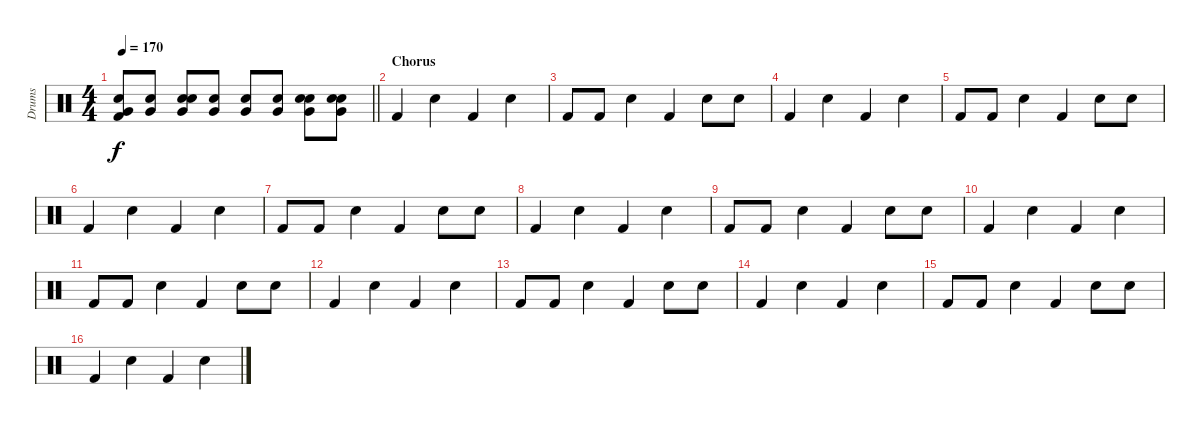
\track ("Drums" "Drums") {instrument percussion}
\staff {score}
\articulation defaults
\ts (4 4)
\tempo 170
\clef neutral
\barLineRight lightlight
\ks c
("Snare (hit) 2" "Very Low Tom (hit)" "Kick (hit) 2").8{dy f} ("Snare (hit) 2" "Very Low Tom (hit)").8 ("Hand Clap (hit)" "Snare (hit) 2" "Very Low Tom (hit)").8 ("Snare (hit) 2" "Very Low Tom (hit)").8 ("Snare (hit) 2" "Very Low Tom (hit)").8 ("Snare (hit) 2" "Very Low Tom (hit)").8 ("Hand Clap (hit)" "Snare (hit) 2" "Very Low Tom (hit)").8 ("Hand Clap (hit)" "Snare (hit) 2" "Very Low Tom (hit)").8 |
\section ("" "Chorus")
"Kick (hit) 2".4 "Hand Clap (hit)".4 "Kick (hit) 2".4 "Hand Clap (hit)".4 |
"Kick (hit) 2".8 "Kick (hit) 2".8 "Hand Clap (hit)".4 "Kick (hit) 2".4 "Hand Clap (hit)".8 "Hand Clap (hit)".8 |
"Kick (hit) 2".4 "Hand Clap (hit)".4 "Kick (hit) 2".4 "Hand Clap (hit)".4 |
"Kick (hit) 2".8 "Kick (hit) 2".8 "Hand Clap (hit)".4 "Kick (hit) 2".4 "Hand Clap (hit)".8 "Hand Clap (hit)".8 |
"Kick (hit) 2".4 "Hand Clap (hit)".4 "Kick (hit) 2".4 "Hand Clap (hit)".4 |
"Kick (hit) 2".8 "Kick (hit) 2".8 "Hand Clap (hit)".4 "Kick (hit) 2".4 "Hand Clap (hit)".8 "Hand Clap (hit)".8 |
"Kick (hit) 2".4 "Hand Clap (hit)".4 "Kick (hit) 2".4 "Hand Clap (hit)".4 |
"Kick (hit) 2".8 "Kick (hit) 2".8 "Hand Clap (hit)".4 "Kick (hit) 2".4 "Hand Clap (hit)".8 "Hand Clap (hit)".8 |
"Kick (hit) 2".4 "Hand Clap (hit)".4 "Kick (hit) 2".4 "Hand Clap (hit)".4 |
"Kick (hit) 2".8 "Kick (hit) 2".8 "Hand Clap (hit)".4 "Kick (hit) 2".4 "Hand Clap (hit)".8 "Hand Clap (hit)".8 |
"Kick (hit) 2".4 "Hand Clap (hit)".4 "Kick (hit) 2".4 "Hand Clap (hit)".4 |
"Kick (hit) 2".8 "Kick (hit) 2".8 "Hand Clap (hit)".4 "Kick (hit) 2".4 "Hand Clap (hit)".8 "Hand Clap (hit)".8 |
"Kick (hit) 2".4 "Hand Clap (hit)".4 "Kick (hit) 2".4 "Hand Clap (hit)".4 |
"Kick (hit) 2".8 "Kick (hit) 2".8 "Hand Clap (hit)".4 "Kick (hit) 2".4 "Hand Clap (hit)".8 "Hand Clap (hit)".8 |
"Kick (hit) 2".4 "Hand Clap (hit)".4 "Kick (hit) 2".4 "Hand Clap (hit)".4
